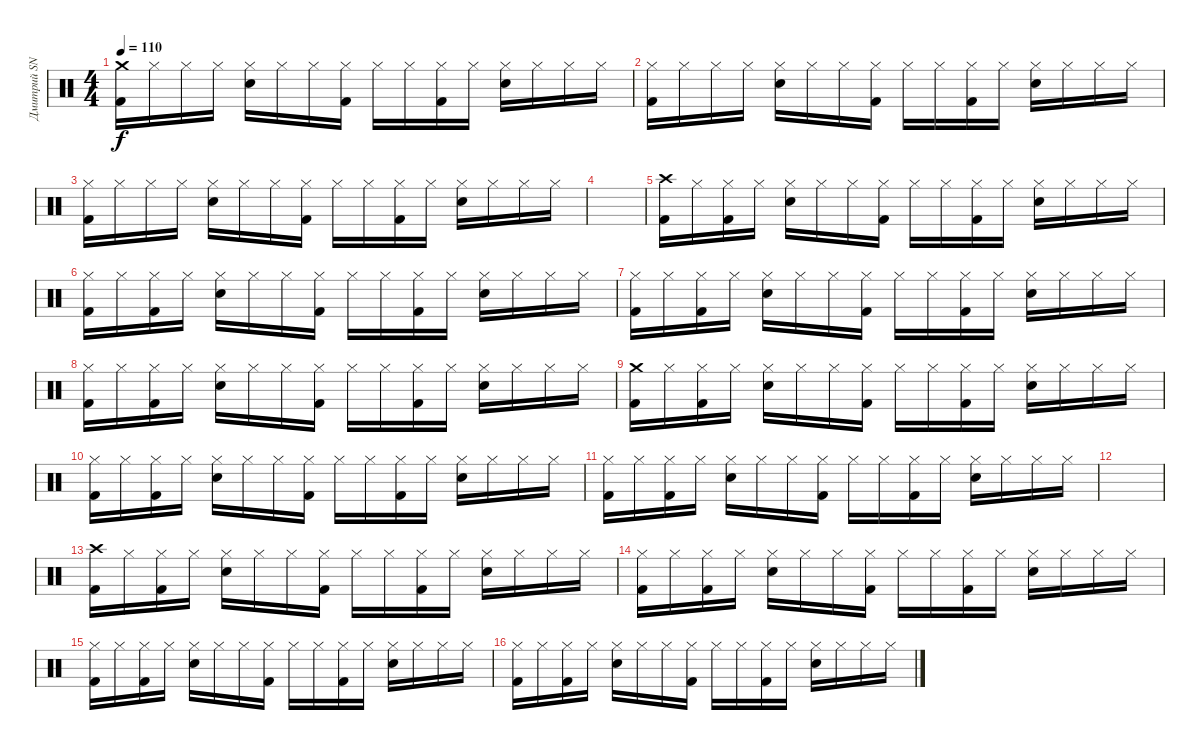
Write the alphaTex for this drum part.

\track ("Дмитрий SNAKE Хакимов" "Дмитрий SN") {instrument percussion}
\staff {score}
\articulation defaults
\ts (4 4)
\tempo 110
\clef neutral
\ks c
("Crash medium (hit)" "Kick (hit) 2").16{dy f} "Hi-Hat (closed)".16 "Hi-Hat (closed)".16 "Hi-Hat (closed)".16 ("Hi-Hat (closed)" "Electric Snare (hit)").16 "Hi-Hat (closed)".16 "Hi-Hat (closed)".16 ("Hi-Hat (closed)" "Kick (hit) 2").16 "Hi-Hat (closed)".16 "Hi-Hat (closed)".16 ("Hi-Hat (closed)" "Kick (hit) 2").16 "Hi-Hat (closed)".16 ("Hi-Hat (closed)" "Electric Snare (hit)").16 "Hi-Hat (closed)".16 "Hi-Hat (closed)".16 "Hi-Hat (closed)".16 |
("Hi-Hat (closed)" "Kick (hit) 2").16 "Hi-Hat (closed)".16 "Hi-Hat (closed)".16 "Hi-Hat (closed)".16 ("Hi-Hat (closed)" "Electric Snare (hit)").16 "Hi-Hat (closed)".16 "Hi-Hat (closed)".16 ("Hi-Hat (closed)" "Kick (hit) 2").16 "Hi-Hat (closed)".16 "Hi-Hat (closed)".16 ("Hi-Hat (closed)" "Kick (hit) 2").16 "Hi-Hat (closed)".16 ("Hi-Hat (closed)" "Electric Snare (hit)").16 "Hi-Hat (closed)".16 "Hi-Hat (closed)".16 "Hi-Hat (closed)".16 |
("Hi-Hat (closed)" "Kick (hit) 2").16 "Hi-Hat (closed)".16 "Hi-Hat (closed)".16 "Hi-Hat (closed)".16 ("Hi-Hat (closed)" "Electric Snare (hit)").16 "Hi-Hat (closed)".16 "Hi-Hat (closed)".16 ("Hi-Hat (closed)" "Kick (hit) 2").16 "Hi-Hat (closed)".16 "Hi-Hat (closed)".16 ("Hi-Hat (closed)" "Kick (hit) 2").16 "Hi-Hat (closed)".16 ("Hi-Hat (closed)" "Electric Snare (hit)").16 "Hi-Hat (closed)".16 "Hi-Hat (closed)".16 "Hi-Hat (closed)".16 |
|
("Crash high (hit)" "Kick (hit) 2").16 "Hi-Hat (closed)".16 ("Hi-Hat (closed)" "Kick (hit) 2").16 "Hi-Hat (closed)".16 ("Hi-Hat (closed)" "Snare (hit) 2").16 "Hi-Hat (closed)".16 "Hi-Hat (closed)".16 ("Hi-Hat (closed)" "Kick (hit) 2").16 "Hi-Hat (closed)".16 "Hi-Hat (closed)".16 ("Hi-Hat (closed)" "Kick (hit) 2").16 "Hi-Hat (closed)".16 ("Hi-Hat (closed)" "Snare (hit) 2").16 "Hi-Hat (closed)".16 "Hi-Hat (closed)".16 "Hi-Hat (closed)".16 |
("Hi-Hat (closed)" "Kick (hit) 2").16 "Hi-Hat (closed)".16 ("Hi-Hat (closed)" "Kick (hit) 2").16 "Hi-Hat (closed)".16 ("Hi-Hat (closed)" "Snare (hit) 2").16 "Hi-Hat (closed)".16 "Hi-Hat (closed)".16 ("Hi-Hat (closed)" "Kick (hit) 2").16 "Hi-Hat (closed)".16 "Hi-Hat (closed)".16 ("Hi-Hat (closed)" "Kick (hit) 2").16 "Hi-Hat (closed)".16 ("Hi-Hat (closed)" "Snare (hit) 2").16 "Hi-Hat (closed)".16 "Hi-Hat (closed)".16 "Hi-Hat (closed)".16 |
("Hi-Hat (closed)" "Kick (hit) 2").16 "Hi-Hat (closed)".16 ("Hi-Hat (closed)" "Kick (hit) 2").16 "Hi-Hat (closed)".16 ("Hi-Hat (closed)" "Snare (hit) 2").16 "Hi-Hat (closed)".16 "Hi-Hat (closed)".16 ("Hi-Hat (closed)" "Kick (hit) 2").16 "Hi-Hat (closed)".16 "Hi-Hat (closed)".16 ("Hi-Hat (closed)" "Kick (hit) 2").16 "Hi-Hat (closed)".16 ("Hi-Hat (closed)" "Snare (hit) 2").16 "Hi-Hat (closed)".16 "Hi-Hat (closed)".16 "Hi-Hat (closed)".16 |
("Hi-Hat (closed)" "Kick (hit) 2").16 "Hi-Hat (closed)".16 ("Hi-Hat (closed)" "Kick (hit) 2").16 "Hi-Hat (closed)".16 ("Hi-Hat (closed)" "Snare (hit) 2").16 "Hi-Hat (closed)".16 "Hi-Hat (closed)".16 ("Hi-Hat (closed)" "Kick (hit) 2").16 "Hi-Hat (closed)".16 "Hi-Hat (closed)".16 ("Hi-Hat (closed)" "Kick (hit) 2").16 "Hi-Hat (closed)".16 ("Hi-Hat (closed)" "Snare (hit) 2").16 "Hi-Hat (closed)".16 "Hi-Hat (closed)".16 "Hi-Hat (closed)".16 |
("Crash medium (hit)" "Kick (hit) 2").16 "Hi-Hat (closed)".16 ("Hi-Hat (closed)" "Kick (hit) 2").16 "Hi-Hat (closed)".16 ("Hi-Hat (closed)" "Snare (hit) 2").16 "Hi-Hat (closed)".16 "Hi-Hat (closed)".16 ("Hi-Hat (closed)" "Kick (hit) 2").16 "Hi-Hat (closed)".16 "Hi-Hat (closed)".16 ("Hi-Hat (closed)" "Kick (hit) 2").16 "Hi-Hat (closed)".16 ("Hi-Hat (closed)" "Snare (hit) 2").16 "Hi-Hat (closed)".16 "Hi-Hat (closed)".16 "Hi-Hat (closed)".16 |
("Hi-Hat (closed)" "Kick (hit) 2").16 "Hi-Hat (closed)".16 ("Hi-Hat (closed)" "Kick (hit) 2").16 "Hi-Hat (closed)".16 ("Hi-Hat (closed)" "Snare (hit) 2").16 "Hi-Hat (closed)".16 "Hi-Hat (closed)".16 ("Hi-Hat (closed)" "Kick (hit) 2").16 "Hi-Hat (closed)".16 "Hi-Hat (closed)".16 ("Hi-Hat (closed)" "Kick (hit) 2").16 "Hi-Hat (closed)".16 ("Hi-Hat (closed)" "Snare (hit) 2").16 "Hi-Hat (closed)".16 "Hi-Hat (closed)".16 "Hi-Hat (closed)".16 |
("Hi-Hat (closed)" "Kick (hit) 2").16 "Hi-Hat (closed)".16 ("Hi-Hat (closed)" "Kick (hit) 2").16 "Hi-Hat (closed)".16 ("Hi-Hat (closed)" "Snare (hit) 2").16 "Hi-Hat (closed)".16 "Hi-Hat (closed)".16 ("Hi-Hat (closed)" "Kick (hit) 2").16 "Hi-Hat (closed)".16 "Hi-Hat (closed)".16 ("Hi-Hat (closed)" "Kick (hit) 2").16 "Hi-Hat (closed)".16 ("Hi-Hat (closed)" "Snare (hit) 2").16 "Hi-Hat (closed)".16 "Hi-Hat (closed)".16 "Hi-Hat (closed)".16 |
|
("Crash high (hit)" "Kick (hit) 2").16 "Hi-Hat (closed)".16 ("Hi-Hat (closed)" "Kick (hit) 2").16 "Hi-Hat (closed)".16 ("Hi-Hat (closed)" "Snare (hit) 2").16 "Hi-Hat (closed)".16 "Hi-Hat (closed)".16 ("Hi-Hat (closed)" "Kick (hit) 2").16 "Hi-Hat (closed)".16 "Hi-Hat (closed)".16 ("Hi-Hat (closed)" "Kick (hit) 2").16 "Hi-Hat (closed)".16 ("Hi-Hat (closed)" "Snare (hit) 2").16 "Hi-Hat (closed)".16 "Hi-Hat (closed)".16 "Hi-Hat (closed)".16 |
("Hi-Hat (closed)" "Kick (hit) 2").16 "Hi-Hat (closed)".16 ("Hi-Hat (closed)" "Kick (hit) 2").16 "Hi-Hat (closed)".16 ("Hi-Hat (closed)" "Snare (hit) 2").16 "Hi-Hat (closed)".16 "Hi-Hat (closed)".16 ("Hi-Hat (closed)" "Kick (hit) 2").16 "Hi-Hat (closed)".16 "Hi-Hat (closed)".16 ("Hi-Hat (closed)" "Kick (hit) 2").16 "Hi-Hat (closed)".16 ("Hi-Hat (closed)" "Snare (hit) 2").16 "Hi-Hat (closed)".16 "Hi-Hat (closed)".16 "Hi-Hat (closed)".16 |
("Hi-Hat (closed)" "Kick (hit) 2").16 "Hi-Hat (closed)".16 ("Hi-Hat (closed)" "Kick (hit) 2").16 "Hi-Hat (closed)".16 ("Hi-Hat (closed)" "Snare (hit) 2").16 "Hi-Hat (closed)".16 "Hi-Hat (closed)".16 ("Hi-Hat (closed)" "Kick (hit) 2").16 "Hi-Hat (closed)".16 "Hi-Hat (closed)".16 ("Hi-Hat (closed)" "Kick (hit) 2").16 "Hi-Hat (closed)".16 ("Hi-Hat (closed)" "Snare (hit) 2").16 "Hi-Hat (closed)".16 "Hi-Hat (closed)".16 "Hi-Hat (closed)".16 |
("Hi-Hat (closed)" "Kick (hit) 2").16 "Hi-Hat (closed)".16 ("Hi-Hat (closed)" "Kick (hit) 2").16 "Hi-Hat (closed)".16 ("Hi-Hat (closed)" "Snare (hit) 2").16 "Hi-Hat (closed)".16 "Hi-Hat (closed)".16 ("Hi-Hat (closed)" "Kick (hit) 2").16 "Hi-Hat (closed)".16 "Hi-Hat (closed)".16 ("Hi-Hat (closed)" "Kick (hit) 2").16 "Hi-Hat (closed)".16 ("Hi-Hat (closed)" "Snare (hit) 2").16 "Hi-Hat (closed)".16 "Hi-Hat (closed)".16 "Hi-Hat (closed)".16
